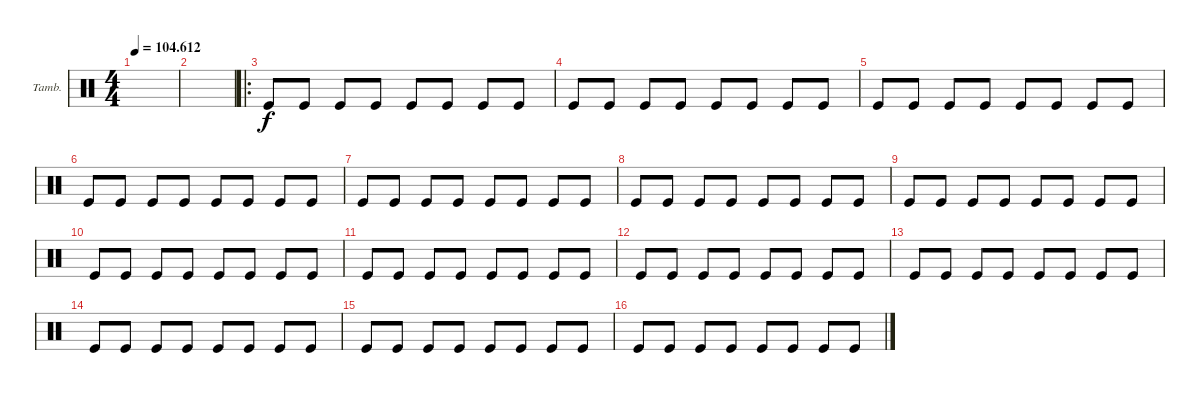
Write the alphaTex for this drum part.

\defaultSystemsLayout 4
\bracketExtendMode groupsimilarinstruments
\firstSystemTrackNameOrientation horizontal
\otherSystemsTrackNameOrientation horizontal
\track ("Tambourine" "Tamb.") {instrument percussion}
\staff {score}
\articulation defaults
\ts (4 4)
\tempo
104.612
\accidentals auto
\clef neutral
\ottava regular
\simile none
\scale
0.333333
\ks c
|
\scale
0.333333 |
\ro
\scale
0.377049 "Kick (hit)".8 "Kick (hit)".8 "Kick (hit)".8 "Kick (hit)".8 "Kick (hit)".8 "Kick (hit)".8 "Kick (hit)".8 "Kick (hit)".8 |
\scale
0.311475 "Kick (hit)".8 "Kick (hit)".8 "Kick (hit)".8 "Kick (hit)".8 "Kick (hit)".8 "Kick (hit)".8 "Kick (hit)".8 "Kick (hit)".8 |
\scale
0.311475 "Kick (hit)".8 "Kick (hit)".8 "Kick (hit)".8 "Kick (hit)".8 "Kick (hit)".8 "Kick (hit)".8 "Kick (hit)".8 "Kick (hit)".8 |
\scale
0.333333 "Kick (hit)".8 "Kick (hit)".8 "Kick (hit)".8 "Kick (hit)".8 "Kick (hit)".8 "Kick (hit)".8 "Kick (hit)".8 "Kick (hit)".8 |
\scale
0.333333 "Kick (hit)".8 "Kick (hit)".8 "Kick (hit)".8 "Kick (hit)".8 "Kick (hit)".8 "Kick (hit)".8 "Kick (hit)".8 "Kick (hit)".8 |
\scale
0.333333 "Kick (hit)".8 "Kick (hit)".8 "Kick (hit)".8 "Kick (hit)".8 "Kick (hit)".8 "Kick (hit)".8 "Kick (hit)".8 "Kick (hit)".8 |
\scale
0.333333 "Kick (hit)".8 "Kick (hit)".8 "Kick (hit)".8 "Kick (hit)".8 "Kick (hit)".8 "Kick (hit)".8 "Kick (hit)".8 "Kick (hit)".8 |
\scale
0.333333 "Kick (hit)".8 "Kick (hit)".8 "Kick (hit)".8 "Kick (hit)".8 "Kick (hit)".8 "Kick (hit)".8 "Kick (hit)".8 "Kick (hit)".8 |
\scale
0.333333 "Kick (hit)".8 "Kick (hit)".8 "Kick (hit)".8 "Kick (hit)".8 "Kick (hit)".8 "Kick (hit)".8 "Kick (hit)".8 "Kick (hit)".8 |
\scale
0.333333 "Kick (hit)".8 "Kick (hit)".8 "Kick (hit)".8 "Kick (hit)".8 "Kick (hit)".8 "Kick (hit)".8 "Kick (hit)".8 "Kick (hit)".8 |
\scale
0.333333 "Kick (hit)".8 "Kick (hit)".8 "Kick (hit)".8 "Kick (hit)".8 "Kick (hit)".8 "Kick (hit)".8 "Kick (hit)".8 "Kick (hit)".8 |
\scale
0.333333 "Kick (hit)".8 "Kick (hit)".8 "Kick (hit)".8 "Kick (hit)".8 "Kick (hit)".8 "Kick (hit)".8 "Kick (hit)".8 "Kick (hit)".8 |
\scale
0.333333 "Kick (hit)".8 "Kick (hit)".8 "Kick (hit)".8 "Kick (hit)".8 "Kick (hit)".8 "Kick (hit)".8 "Kick (hit)".8 "Kick (hit)".8 |
\scale
0.333333 "Kick (hit)".8 "Kick (hit)".8 "Kick (hit)".8 "Kick (hit)".8 "Kick (hit)".8 "Kick (hit)".8 "Kick (hit)".8 "Kick (hit)".8
